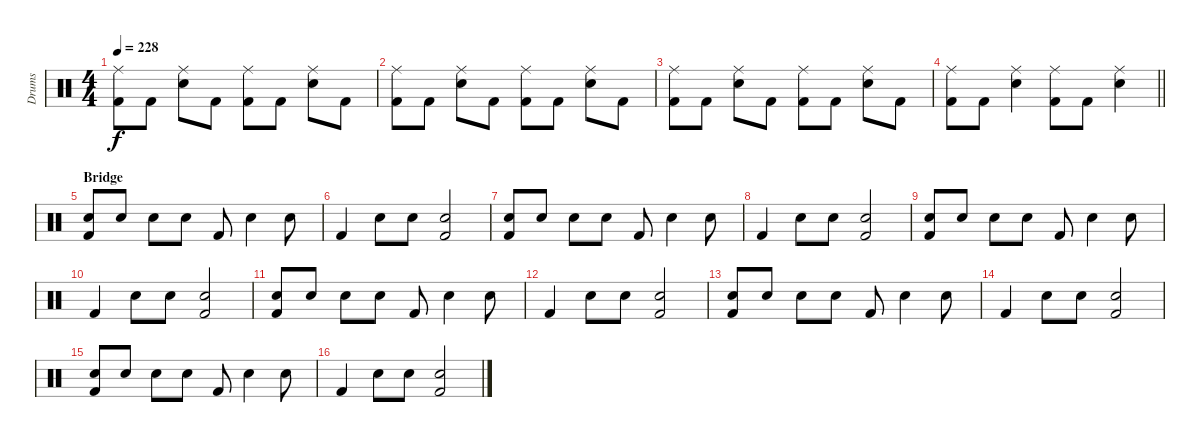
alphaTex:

\track ("Drums" "Drums") {instrument percussion}
\staff {score}
\articulation defaults
\ts (4 4)
\tempo 228
\clef neutral
\ks c
("Ride (middle)" "Kick (hit) 2").8{dy f} "Kick (hit) 2".8 ("Ride (middle)" "Snare (hit) 2").8 "Kick (hit) 2".8 ("Ride (middle)" "Kick (hit) 2").8 "Kick (hit) 2".8 ("Ride (middle)" "Snare (hit) 2").8 "Kick (hit) 2".8 |
("Ride (middle)" "Kick (hit) 2").8 "Kick (hit) 2".8 ("Ride (middle)" "Snare (hit) 2").8 "Kick (hit) 2".8 ("Ride (middle)" "Kick (hit) 2").8 "Kick (hit) 2".8 ("Ride (middle)" "Snare (hit) 2").8 "Kick (hit) 2".8 |
("Ride (middle)" "Kick (hit) 2").8 "Kick (hit) 2".8 ("Ride (middle)" "Snare (hit) 2").8 "Kick (hit) 2".8 ("Ride (middle)" "Kick (hit) 2").8 "Kick (hit) 2".8 ("Ride (middle)" "Snare (hit) 2").8 "Kick (hit) 2".8 |
\barLineRight lightlight
("Ride (middle)" "Kick (hit) 2").8 "Kick (hit) 2".8 ("Ride (middle)" "Snare (hit) 2").4 ("Ride (middle)" "Kick (hit) 2").8 "Kick (hit) 2".8 ("Ride (middle)" "Snare (hit) 2").4 |
\section ("" "Bridge")
("Snare (hit) 2" "Kick (hit) 2").8 "Snare (hit) 2".8 "Snare (hit) 2".8 "Snare (hit) 2".8 "Kick (hit) 2".8 "Snare (hit) 2".4 "Snare (hit) 2".8 |
"Kick (hit) 2".4 "Snare (hit) 2".8 "Snare (hit) 2".8 ("Snare (hit) 2" "Kick (hit) 2").2 |
("Snare (hit) 2" "Kick (hit) 2").8 "Snare (hit) 2".8 "Snare (hit) 2".8 "Snare (hit) 2".8 "Kick (hit) 2".8 "Snare (hit) 2".4 "Snare (hit) 2".8 |
"Kick (hit) 2".4 "Snare (hit) 2".8 "Snare (hit) 2".8 ("Snare (hit) 2" "Kick (hit) 2").2 |
("Snare (hit) 2" "Kick (hit) 2").8 "Snare (hit) 2".8 "Snare (hit) 2".8 "Snare (hit) 2".8 "Kick (hit) 2".8 "Snare (hit) 2".4 "Snare (hit) 2".8 |
"Kick (hit) 2".4 "Snare (hit) 2".8 "Snare (hit) 2".8 ("Snare (hit) 2" "Kick (hit) 2").2 |
("Snare (hit) 2" "Kick (hit) 2").8 "Snare (hit) 2".8 "Snare (hit) 2".8 "Snare (hit) 2".8 "Kick (hit) 2".8 "Snare (hit) 2".4 "Snare (hit) 2".8 |
"Kick (hit) 2".4 "Snare (hit) 2".8 "Snare (hit) 2".8 ("Snare (hit) 2" "Kick (hit) 2").2 |
("Snare (hit) 2" "Kick (hit) 2").8 "Snare (hit) 2".8 "Snare (hit) 2".8 "Snare (hit) 2".8 "Kick (hit) 2".8 "Snare (hit) 2".4 "Snare (hit) 2".8 |
"Kick (hit) 2".4 "Snare (hit) 2".8 "Snare (hit) 2".8 ("Snare (hit) 2" "Kick (hit) 2").2 |
("Snare (hit) 2" "Kick (hit) 2").8 "Snare (hit) 2".8 "Snare (hit) 2".8 "Snare (hit) 2".8 "Kick (hit) 2".8 "Snare (hit) 2".4 "Snare (hit) 2".8 |
"Kick (hit) 2".4 "Snare (hit) 2".8 "Snare (hit) 2".8 ("Snare (hit) 2" "Kick (hit) 2").2
